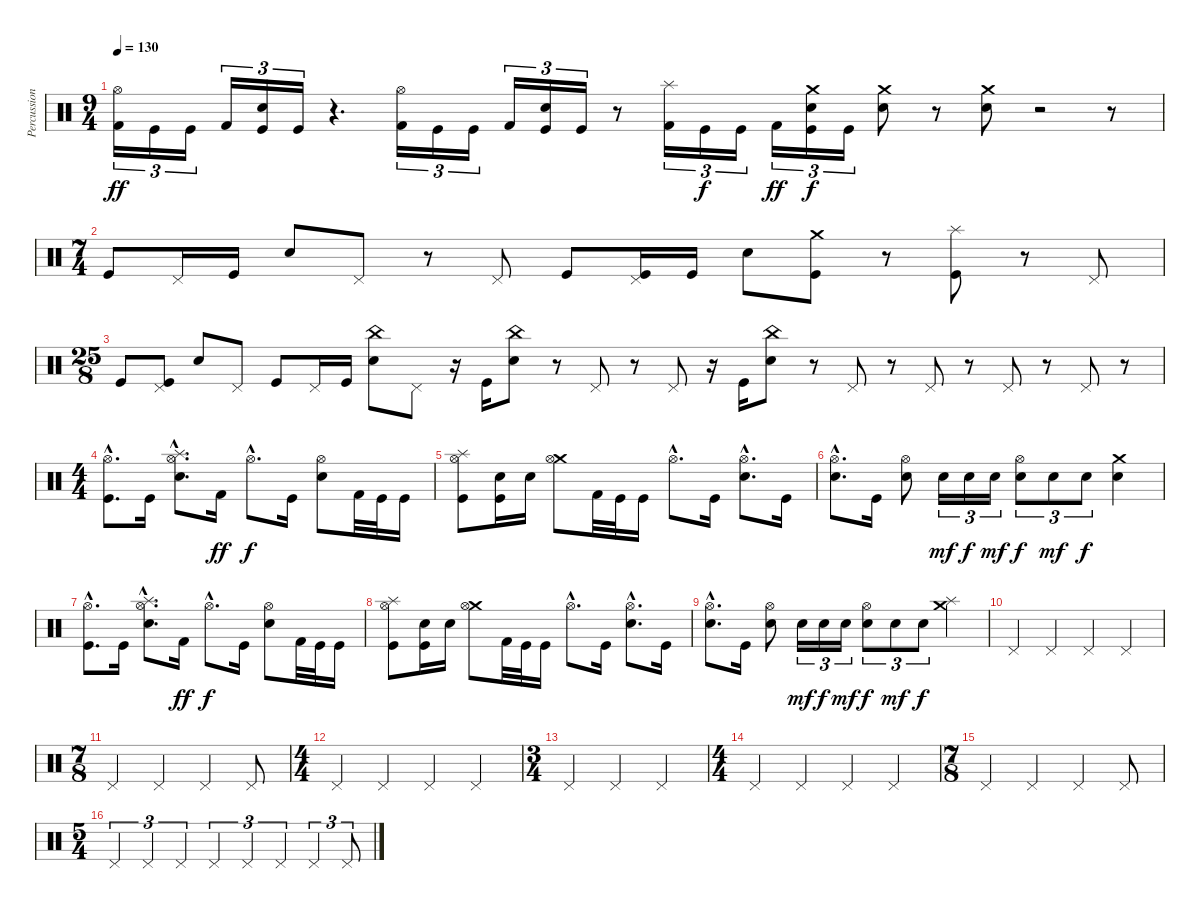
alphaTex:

\track ("Percussioni" "Percussion") {instrument percussion}
\staff {score}
\articulation defaults
\ts (9 4)
\tempo 130
\clef neutral
\ks c
("Hi-Hat (open)" "Kick (hit) 2").16{tu (3 2) dy ff} "Kick (hit)".16{tu (3 2)} "Kick (hit)".16{tu (3 2)} "Kick (hit) 2".16{tu (3 2)} ("Snare (hit) 2" "Kick (hit)").16{tu (3 2)} "Kick (hit)".16{tu (3 2)} r.4{d} ("Hi-Hat (open)" "Kick (hit) 2").16{tu (3 2)} "Kick (hit)".16{tu (3 2)} "Kick (hit)".16{tu (3 2)} "Kick (hit) 2".16{tu (3 2)} ("Snare (hit) 2" "Kick (hit)").16{tu (3 2)} "Kick (hit)".16{tu (3 2)} r.8 ("Splash (hit)" "Kick (hit) 2").16{tu (3 2)} "Kick (hit)".16{tu (3 2) dy f} "Kick (hit)".16{tu (3 2)} "Kick (hit) 2".16{tu (3 2) dy ff} ("Crash medium (hit)" "Snare (hit) 2" "Kick (hit)").16{tu (3 2) dy f} "Kick (hit)".16{tu (3 2)} ("Crash medium (hit)" "Snare (hit) 2").8 r.8 ("Crash medium (hit)" "Snare (hit) 2").8 r.2 r.8 |
\ts (7 4)
"Kick (hit)".8 "Pedal Hi-Hat (hit)".16 "Kick (hit)".16 "Snare (hit) 2".8 "Pedal Hi-Hat (hit)".8 r.8 "Pedal Hi-Hat (hit)".8 "Kick (hit)".8 ("Pedal Hi-Hat (hit)" "Kick (hit)").16 "Kick (hit)".16 "Snare (hit) 2".8 ("Crash medium (hit)" "Kick (hit)").8 r.8 ("Splash (hit)" "Kick (hit)").8 r.8 "Pedal Hi-Hat (hit)".8 |
\ts (25 8)
"Kick (hit)".8 ("Pedal Hi-Hat (hit)" "Kick (hit)").8 "Snare (hit) 2".8 "Pedal Hi-Hat (hit)".8 "Kick (hit)".8 "Pedal Hi-Hat (hit)".16 "Kick (hit)".16 ("China (hit)" "Snare (hit) 2").8 "Pedal Hi-Hat (hit)".8 r.16 "Kick (hit)".16 ("China (hit)" "Snare (hit) 2").8 r.8 "Pedal Hi-Hat (hit)".8 r.8 "Pedal Hi-Hat (hit)".8 r.16 "Kick (hit)".16 ("China (hit)" "Snare (hit) 2").8 r.8 "Pedal Hi-Hat (hit)".8 r.8 "Pedal Hi-Hat (hit)".8 r.8 "Pedal Hi-Hat (hit)".8 r.8 "Pedal Hi-Hat (hit)".8 r.8 |
\ts (4 4)
("Hi-Hat (open)"{hac} "Kick (hit)"{hac}).8{d} "Kick (hit)".16 ("Splash (hit)"{hac} "Hi-Hat (open)"{hac} "Snare (hit) 2"{hac}).8{d} "Kick (hit) 2".16{dy ff} "Hi-Hat (open)"{hac}.8{d dy f} "Kick (hit)".16 ("Hi-Hat (open)" "Snare (hit) 2").8 "Kick (hit) 2".32 "Kick (hit)".32 "Kick (hit)".16 |
("Splash (hit)" "Hi-Hat (open)" "Kick (hit)").8 ("Snare (hit) 2" "Kick (hit)").16 "Snare (hit) 2".16 ("Crash medium (hit)" "Hi-Hat (open)").8 "Kick (hit) 2".32 "Kick (hit)".32 "Kick (hit)".16 "Hi-Hat (open)"{hac}.8{d} "Kick (hit)".16 ("Hi-Hat (open)"{hac} "Snare (hit) 2"{hac}).8{d} "Kick (hit)".16 |
("Hi-Hat (open)"{hac} "Snare (hit) 2"{hac}).8{d} "Kick (hit)".16 ("Hi-Hat (open)" "Snare (hit) 2").8 "Snare (hit) 2".16{tu (3 2) dy mf} "Snare (hit) 2".16{tu (3 2) dy f} "Snare (hit) 2".16{tu (3 2) dy mf} ("Hi-Hat (open)" "Snare (hit) 2").8{tu (3 2) dy f} "Snare (hit) 2".8{tu (3 2) dy mf} "Snare (hit) 2".8{tu (3 2) dy f} ("Crash medium (hit)" "Snare (hit) 2").4 |
("Hi-Hat (open)"{hac} "Kick (hit)"{hac}).8{d} "Kick (hit)".16 ("Splash (hit)"{hac} "Hi-Hat (open)"{hac} "Snare (hit) 2"{hac}).8{d} "Kick (hit) 2".16{dy ff} "Hi-Hat (open)"{hac}.8{d dy f} "Kick (hit)".16 ("Hi-Hat (open)" "Snare (hit) 2").8 "Kick (hit) 2".32 "Kick (hit)".32 "Kick (hit)".16 |
("Splash (hit)" "Hi-Hat (open)" "Kick (hit)").8 ("Snare (hit) 2" "Kick (hit)").16 "Snare (hit) 2".16 ("Crash medium (hit)" "Hi-Hat (open)").8 "Kick (hit) 2".32 "Kick (hit)".32 "Kick (hit)".16 "Hi-Hat (open)"{hac}.8{d} "Kick (hit)".16 ("Hi-Hat (open)"{hac} "Snare (hit) 2"{hac}).8{d} "Kick (hit)".16 |
("Hi-Hat (open)"{hac} "Snare (hit) 2"{hac}).8{d} "Kick (hit)".16 ("Hi-Hat (open)" "Snare (hit) 2").8 "Snare (hit) 2".16{tu (3 2) dy mf} "Snare (hit) 2".16{tu (3 2) dy f} "Snare (hit) 2".16{tu (3 2) dy mf} ("Hi-Hat (open)" "Snare (hit) 2").8{tu (3 2) dy f} "Snare (hit) 2".8{tu (3 2) dy mf} "Snare (hit) 2".8{tu (3 2) dy f} ("Crash medium (hit)" "Splash (hit)").4 |
"Pedal Hi-Hat (hit)".4 "Pedal Hi-Hat (hit)".4 "Pedal Hi-Hat (hit)".4 "Pedal Hi-Hat (hit)".4 |
\ts (7 8)
"Pedal Hi-Hat (hit)".4 "Pedal Hi-Hat (hit)".4 "Pedal Hi-Hat (hit)".4 "Pedal Hi-Hat (hit)".8 |
\ts (4 4)
"Pedal Hi-Hat (hit)".4 "Pedal Hi-Hat (hit)".4 "Pedal Hi-Hat (hit)".4 "Pedal Hi-Hat (hit)".4 |
\ts (3 4)
"Pedal Hi-Hat (hit)".4 "Pedal Hi-Hat (hit)".4 "Pedal Hi-Hat (hit)".4 |
\ts (4 4)
"Pedal Hi-Hat (hit)".4 "Pedal Hi-Hat (hit)".4 "Pedal Hi-Hat (hit)".4 "Pedal Hi-Hat (hit)".4 |
\ts (7 8)
"Pedal Hi-Hat (hit)".4 "Pedal Hi-Hat (hit)".4 "Pedal Hi-Hat (hit)".4 "Pedal Hi-Hat (hit)".8 |
\ts (5 4)
"Pedal Hi-Hat (hit)".4{tu (3 2)} "Pedal Hi-Hat (hit)".4{tu (3 2)} "Pedal Hi-Hat (hit)".4{tu (3 2)} "Pedal Hi-Hat (hit)".4{tu (3 2)} "Pedal Hi-Hat (hit)".4{tu (3 2)} "Pedal Hi-Hat (hit)".4{tu (3 2)} "Pedal Hi-Hat (hit)".4{tu (3 2)} "Pedal Hi-Hat (hit)".8{tu (3 2)}
